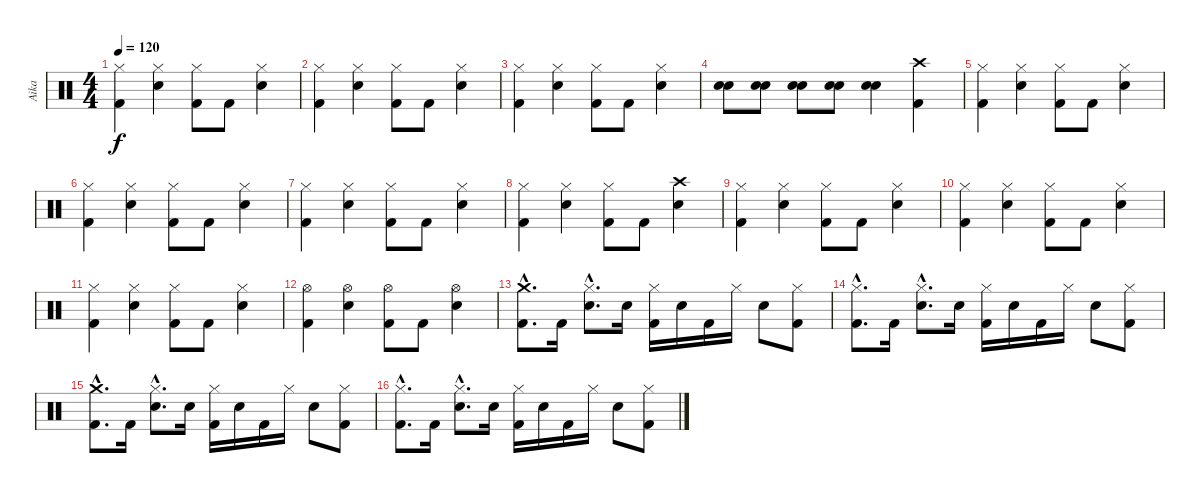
\track ("Aika" "Aika") {instrument percussion}
\staff {score}
\articulation defaults
\ts (4 4)
\tempo 120
\clef neutral
\ks c
("Hi-Hat (closed)" "Kick (hit) 2").4{dy f} ("Hi-Hat (closed)" "Snare (hit) 2").4 ("Hi-Hat (closed)" "Kick (hit) 2").8 "Kick (hit) 2".8 ("Hi-Hat (closed)" "Snare (hit) 2").4 |
("Hi-Hat (closed)" "Kick (hit) 2").4 ("Hi-Hat (closed)" "Snare (hit) 2").4 ("Hi-Hat (closed)" "Kick (hit) 2").8 "Kick (hit) 2".8 ("Hi-Hat (closed)" "Snare (hit) 2").4 |
("Hi-Hat (closed)" "Kick (hit) 2").4 ("Hi-Hat (closed)" "Snare (hit) 2").4 ("Hi-Hat (closed)" "Kick (hit) 2").8 "Kick (hit) 2".8 ("Hi-Hat (closed)" "Snare (hit) 2").4 |
("Snare (hit) 2" "Snare (hit) 2").8 ("Snare (hit) 2" "Snare (hit) 2").8 ("Snare (hit) 2" "Snare (hit) 2").8 ("Snare (hit) 2" "Snare (hit) 2").8 ("Snare (hit) 2" "Snare (hit) 2").4 ("Crash high (hit)" "Kick (hit) 2").4 |
("Hi-Hat (closed)" "Kick (hit) 2").4 ("Hi-Hat (closed)" "Snare (hit) 2").4 ("Hi-Hat (closed)" "Kick (hit) 2").8 "Kick (hit) 2".8 ("Hi-Hat (closed)" "Snare (hit) 2").4 |
("Hi-Hat (closed)" "Kick (hit) 2").4 ("Hi-Hat (closed)" "Snare (hit) 2").4 ("Hi-Hat (closed)" "Kick (hit) 2").8 "Kick (hit) 2".8 ("Hi-Hat (closed)" "Snare (hit) 2").4 |
("Hi-Hat (closed)" "Kick (hit) 2").4 ("Hi-Hat (closed)" "Snare (hit) 2").4 ("Hi-Hat (closed)" "Kick (hit) 2").8 "Kick (hit) 2".8 ("Hi-Hat (closed)" "Snare (hit) 2").4 |
("Hi-Hat (closed)" "Kick (hit) 2").4 ("Hi-Hat (closed)" "Snare (hit) 2").4 ("Hi-Hat (closed)" "Kick (hit) 2").8 "Kick (hit) 2".8 ("Crash high (hit)" "Snare (hit) 2").4 |
("Hi-Hat (closed)" "Kick (hit) 2").4 ("Hi-Hat (closed)" "Snare (hit) 2").4 ("Hi-Hat (closed)" "Kick (hit) 2").8 "Kick (hit) 2".8 ("Hi-Hat (closed)" "Snare (hit) 2").4 |
("Hi-Hat (closed)" "Kick (hit) 2").4 ("Hi-Hat (closed)" "Snare (hit) 2").4 ("Hi-Hat (closed)" "Kick (hit) 2").8 "Kick (hit) 2".8 ("Hi-Hat (closed)" "Snare (hit) 2").4 |
("Hi-Hat (closed)" "Kick (hit) 2").4 ("Hi-Hat (closed)" "Snare (hit) 2").4 ("Hi-Hat (closed)" "Kick (hit) 2").8 "Kick (hit) 2".8 ("Hi-Hat (closed)" "Snare (hit) 2").4 |
("Hi-Hat (open)" "Kick (hit) 2").4 ("Hi-Hat (open)" "Snare (hit) 2").4 ("Hi-Hat (open)" "Kick (hit) 2").8 "Kick (hit) 2".8 ("Hi-Hat (open)" "Snare (hit) 2").4 |
("Crash medium (hit)"{hac} "Kick (hit) 2"{hac}).8{d} "Kick (hit) 2".16 ("Hi-Hat (closed)"{hac} "Snare (hit) 2"{hac}).8{d} "Snare (hit) 2".16 ("Hi-Hat (closed)" "Kick (hit) 2").16 "Snare (hit) 2".16 "Kick (hit) 2".16 "Hi-Hat (closed)".16 "Snare (hit) 2".8 ("Hi-Hat (closed)" "Kick (hit) 2").8 |
("Hi-Hat (closed)"{hac} "Kick (hit) 2"{hac}).8{d} "Kick (hit) 2".16 ("Hi-Hat (closed)"{hac} "Snare (hit) 2"{hac}).8{d} "Snare (hit) 2".16 ("Hi-Hat (closed)" "Kick (hit) 2").16 "Snare (hit) 2".16 "Kick (hit) 2".16 "Hi-Hat (closed)".16 "Snare (hit) 2".8 ("Hi-Hat (closed)" "Kick (hit) 2").8 |
("Crash medium (hit)"{hac} "Kick (hit) 2"{hac}).8{d} "Kick (hit) 2".16 ("Hi-Hat (closed)"{hac} "Snare (hit) 2"{hac}).8{d} "Snare (hit) 2".16 ("Hi-Hat (closed)" "Kick (hit) 2").16 "Snare (hit) 2".16 "Kick (hit) 2".16 "Hi-Hat (closed)".16 "Snare (hit) 2".8 ("Hi-Hat (closed)" "Kick (hit) 2").8 |
("Hi-Hat (closed)"{hac} "Kick (hit) 2"{hac}).8{d} "Kick (hit) 2".16 ("Hi-Hat (closed)"{hac} "Snare (hit) 2"{hac}).8{d} "Snare (hit) 2".16 ("Hi-Hat (closed)" "Kick (hit) 2").16 "Snare (hit) 2".16 "Kick (hit) 2".16 "Hi-Hat (closed)".16 "Snare (hit) 2".8 ("Hi-Hat (closed)" "Kick (hit) 2").8
